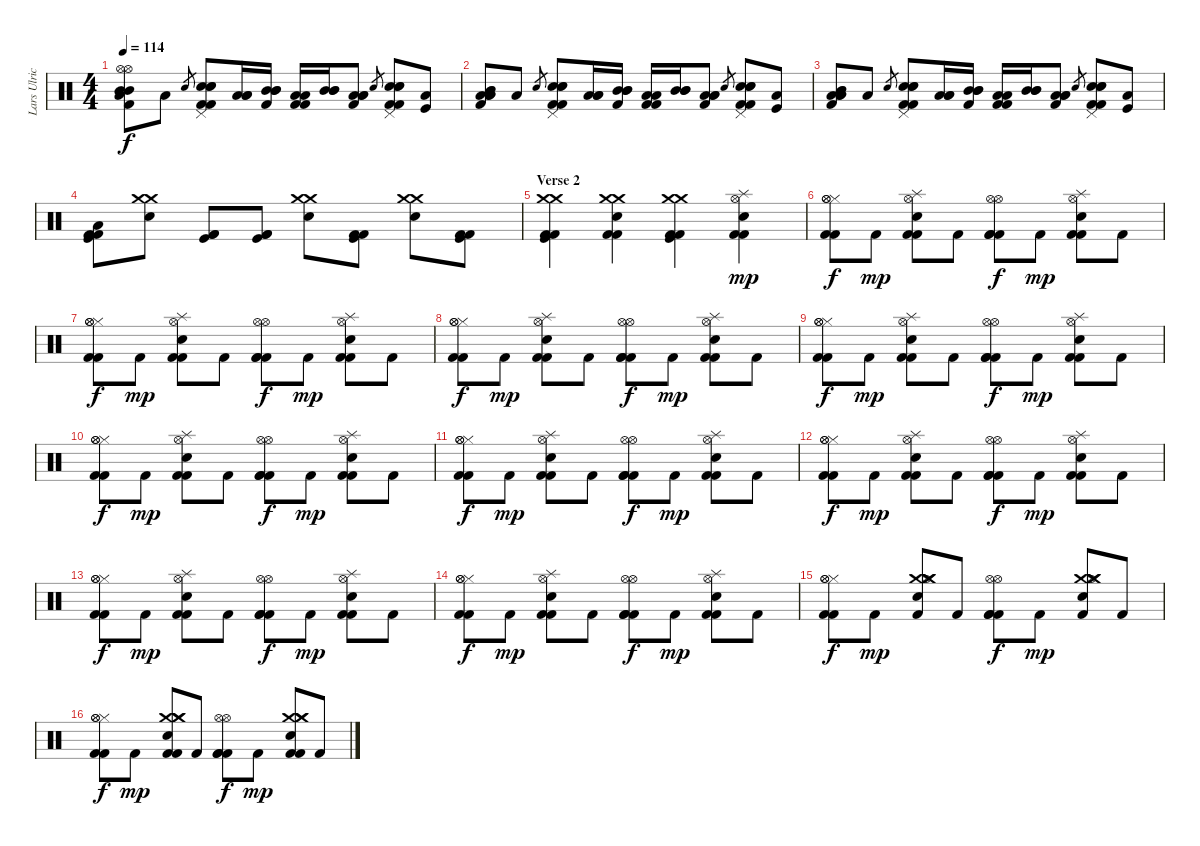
\track ("Lars Ulrich" "Lars Ulric") {instrument percussion}
\staff {score}
\articulation defaults
\ts (4 4)
\tempo 114
\clef neutral
\ks c
("Mid Tom (hit)" "Low Floor Tom (hit)" "Kick (hit) 2" "Mid Tom (hit)" "Hi-Hat (open)" "Hi-Hat (open)").8{dy f} "Low Floor Tom (hit)".8 "Electric Snare (hit)".8{gr} ("Pedal Hi-Hat (hit)" "Electric Snare (hit)" "Electric Snare (hit)" "Electric Snare (hit)" "Kick (hit) 2" "Kick (hit) 2").8 ("Low Floor Tom (hit)" "Low Floor Tom (hit)" "Low Floor Tom (hit)").16 ("Kick (hit) 2" "Mid Tom (hit)" "Mid Tom (hit)" "Mid Tom (hit)").16 ("Kick (hit) 2" "Low Floor Tom (hit)" "Low Floor Tom (hit)" "Kick (hit) 2").16 ("Mid Tom (hit)" "Mid Tom (hit)" "Mid Tom (hit)").16 ("Kick (hit) 2" "Low Floor Tom (hit)" "Low Floor Tom (hit)" "Low Floor Tom (hit)").8 "Electric Snare (hit)".8{gr} ("Pedal Hi-Hat (hit)" "Electric Snare (hit)" "Electric Snare (hit)" "Electric Snare (hit)" "Kick (hit) 2" "Kick (hit) 2").8 ("Kick (hit)" "Low Floor Tom (hit)").8 |
("Mid Tom (hit)" "Low Floor Tom (hit)" "Kick (hit) 2" "Mid Tom (hit)" "Low Floor Tom (hit)" "Low Floor Tom (hit)").8 "Low Floor Tom (hit)".8 "Electric Snare (hit)".8{gr} ("Pedal Hi-Hat (hit)" "Electric Snare (hit)" "Electric Snare (hit)" "Electric Snare (hit)" "Kick (hit) 2" "Kick (hit) 2").8 ("Low Floor Tom (hit)" "Low Floor Tom (hit)" "Low Floor Tom (hit)").16 ("Kick (hit) 2" "Mid Tom (hit)" "Mid Tom (hit)" "Mid Tom (hit)").16 ("Kick (hit) 2" "Low Floor Tom (hit)" "Low Floor Tom (hit)" "Kick (hit) 2").16 ("Mid Tom (hit)" "Mid Tom (hit)" "Mid Tom (hit)").16 ("Kick (hit) 2" "Low Floor Tom (hit)" "Low Floor Tom (hit)" "Low Floor Tom (hit)").8 "Electric Snare (hit)".8{gr} ("Pedal Hi-Hat (hit)" "Electric Snare (hit)" "Electric Snare (hit)" "Electric Snare (hit)" "Kick (hit) 2" "Kick (hit) 2").8 ("Kick (hit)" "Low Floor Tom (hit)").8 |
("Mid Tom (hit)" "Low Floor Tom (hit)" "Kick (hit) 2" "Mid Tom (hit)" "Low Floor Tom (hit)" "Low Floor Tom (hit)").8 "Low Floor Tom (hit)".8 "Electric Snare (hit)".8{gr} ("Pedal Hi-Hat (hit)" "Electric Snare (hit)" "Electric Snare (hit)" "Electric Snare (hit)" "Kick (hit) 2" "Kick (hit) 2").8 ("Low Floor Tom (hit)" "Low Floor Tom (hit)" "Low Floor Tom (hit)").16 ("Kick (hit) 2" "Mid Tom (hit)" "Mid Tom (hit)" "Mid Tom (hit)").16 ("Kick (hit) 2" "Low Floor Tom (hit)" "Low Floor Tom (hit)" "Kick (hit) 2").16 ("Mid Tom (hit)" "Mid Tom (hit)" "Mid Tom (hit)").16 ("Kick (hit) 2" "Low Floor Tom (hit)" "Low Floor Tom (hit)" "Low Floor Tom (hit)").8 "Electric Snare (hit)".8{gr} ("Pedal Hi-Hat (hit)" "Electric Snare (hit)" "Electric Snare (hit)" "Electric Snare (hit)" "Kick (hit) 2" "Kick (hit) 2").8 ("Kick (hit)" "Low Floor Tom (hit)").8 |
("Kick (hit)" "Low Floor Tom (hit)" "Kick (hit) 2" "Kick (hit) 2").8 ("Electric Snare (hit)" "Crash medium (hit)" "Crash medium (hit)").8 ("Kick (hit)" "Kick (hit) 2" "Kick (hit) 2").8 ("Kick (hit)" "Kick (hit) 2" "Kick (hit) 2").8 ("Electric Snare (hit)" "Crash medium (hit)" "Crash medium (hit)").8 ("Kick (hit)" "Kick (hit) 2" "Kick (hit) 2").8 ("Electric Snare (hit)" "Crash medium (hit)" "Crash medium (hit)").8 ("Kick (hit)" "Kick (hit) 2" "Kick (hit) 2").8 |
\section ("" "Verse 2")
("Kick (hit)" "Crash medium (hit)" "Kick (hit) 2" "Kick (hit) 2" "Crash medium (hit)").4 ("Electric Snare (hit)" "Crash medium (hit)" "Kick (hit) 2" "Kick (hit) 2" "Crash medium (hit)").4 ("Kick (hit)" "Crash medium (hit)" "Kick (hit) 2" "Kick (hit) 2" "Crash medium (hit)").4 ("Snare (hit) 2" "Splash (hit)" "Hi-Hat (open)" "Kick (hit) 2" "Kick (hit) 2").4{dy mp} |
("Hi-Hat (closed)" "Hi-Hat (open)" "Hi-Hat (open)" "Kick (hit) 2" "Kick (hit) 2").8{dy f} "Kick (hit) 2".8{dy mp} ("Snare (hit) 2" "Splash (hit)" "Hi-Hat (open)" "Kick (hit) 2" "Kick (hit) 2").8 "Kick (hit) 2".8 ("Kick (hit) 2" "Hi-Hat (open)" "Hi-Hat (open)" "Kick (hit) 2" "Kick (hit) 2").8{dy f} "Kick (hit) 2".8{dy mp} ("Snare (hit) 2" "Splash (hit)" "Hi-Hat (open)" "Kick (hit) 2" "Kick (hit) 2").8 "Kick (hit) 2".8 |
("Hi-Hat (closed)" "Hi-Hat (open)" "Hi-Hat (open)" "Kick (hit) 2" "Kick (hit) 2").8{dy f} "Kick (hit) 2".8{dy mp} ("Snare (hit) 2" "Splash (hit)" "Hi-Hat (open)" "Kick (hit) 2" "Kick (hit) 2").8 "Kick (hit) 2".8 ("Kick (hit) 2" "Hi-Hat (open)" "Hi-Hat (open)" "Kick (hit) 2" "Kick (hit) 2").8{dy f} "Kick (hit) 2".8{dy mp} ("Snare (hit) 2" "Splash (hit)" "Hi-Hat (open)" "Kick (hit) 2" "Kick (hit) 2").8 "Kick (hit) 2".8 |
("Hi-Hat (closed)" "Hi-Hat (open)" "Hi-Hat (open)" "Kick (hit) 2" "Kick (hit) 2").8{dy f} "Kick (hit) 2".8{dy mp} ("Snare (hit) 2" "Splash (hit)" "Hi-Hat (open)" "Kick (hit) 2" "Kick (hit) 2").8 "Kick (hit) 2".8 ("Kick (hit) 2" "Hi-Hat (open)" "Hi-Hat (open)" "Kick (hit) 2" "Kick (hit) 2").8{dy f} "Kick (hit) 2".8{dy mp} ("Snare (hit) 2" "Splash (hit)" "Hi-Hat (open)" "Kick (hit) 2" "Kick (hit) 2").8 "Kick (hit) 2".8 |
("Hi-Hat (closed)" "Hi-Hat (open)" "Hi-Hat (open)" "Kick (hit) 2" "Kick (hit) 2").8{dy f} "Kick (hit) 2".8{dy mp} ("Snare (hit) 2" "Splash (hit)" "Hi-Hat (open)" "Kick (hit) 2" "Kick (hit) 2").8 "Kick (hit) 2".8 ("Kick (hit) 2" "Hi-Hat (open)" "Hi-Hat (open)" "Kick (hit) 2" "Kick (hit) 2").8{dy f} "Kick (hit) 2".8{dy mp} ("Snare (hit) 2" "Splash (hit)" "Hi-Hat (open)" "Kick (hit) 2" "Kick (hit) 2").8 "Kick (hit) 2".8 |
("Hi-Hat (closed)" "Hi-Hat (open)" "Hi-Hat (open)" "Kick (hit) 2" "Kick (hit) 2").8{dy f} "Kick (hit) 2".8{dy mp} ("Snare (hit) 2" "Splash (hit)" "Hi-Hat (open)" "Kick (hit) 2" "Kick (hit) 2").8 "Kick (hit) 2".8 ("Kick (hit) 2" "Hi-Hat (open)" "Hi-Hat (open)" "Kick (hit) 2" "Kick (hit) 2").8{dy f} "Kick (hit) 2".8{dy mp} ("Snare (hit) 2" "Splash (hit)" "Hi-Hat (open)" "Kick (hit) 2" "Kick (hit) 2").8 "Kick (hit) 2".8 |
("Hi-Hat (closed)" "Hi-Hat (open)" "Hi-Hat (open)" "Kick (hit) 2" "Kick (hit) 2").8{dy f} "Kick (hit) 2".8{dy mp} ("Snare (hit) 2" "Splash (hit)" "Hi-Hat (open)" "Kick (hit) 2" "Kick (hit) 2").8 "Kick (hit) 2".8 ("Kick (hit) 2" "Hi-Hat (open)" "Hi-Hat (open)" "Kick (hit) 2" "Kick (hit) 2").8{dy f} "Kick (hit) 2".8{dy mp} ("Snare (hit) 2" "Splash (hit)" "Hi-Hat (open)" "Kick (hit) 2" "Kick (hit) 2").8 "Kick (hit) 2".8 |
("Hi-Hat (closed)" "Hi-Hat (open)" "Hi-Hat (open)" "Kick (hit) 2" "Kick (hit) 2").8{dy f} "Kick (hit) 2".8{dy mp} ("Snare (hit) 2" "Splash (hit)" "Hi-Hat (open)" "Kick (hit) 2" "Kick (hit) 2").8 "Kick (hit) 2".8 ("Kick (hit) 2" "Hi-Hat (open)" "Hi-Hat (open)" "Kick (hit) 2" "Kick (hit) 2").8{dy f} "Kick (hit) 2".8{dy mp} ("Snare (hit) 2" "Splash (hit)" "Hi-Hat (open)" "Kick (hit) 2" "Kick (hit) 2").8 "Kick (hit) 2".8 |
("Hi-Hat (closed)" "Hi-Hat (open)" "Hi-Hat (open)" "Kick (hit) 2" "Kick (hit) 2").8{dy f} "Kick (hit) 2".8{dy mp} ("Snare (hit) 2" "Splash (hit)" "Hi-Hat (open)" "Kick (hit) 2" "Kick (hit) 2").8 "Kick (hit) 2".8 ("Kick (hit) 2" "Hi-Hat (open)" "Hi-Hat (open)" "Kick (hit) 2" "Kick (hit) 2").8{dy f} "Kick (hit) 2".8{dy mp} ("Snare (hit) 2" "Splash (hit)" "Hi-Hat (open)" "Kick (hit) 2" "Kick (hit) 2").8 "Kick (hit) 2".8 |
("Hi-Hat (closed)" "Hi-Hat (open)" "Hi-Hat (open)" "Kick (hit) 2" "Kick (hit) 2").8{dy f} "Kick (hit) 2".8{dy mp} ("Snare (hit) 2" "Splash (hit)" "Hi-Hat (open)" "Kick (hit) 2" "Kick (hit) 2").8 "Kick (hit) 2".8 ("Kick (hit) 2" "Hi-Hat (open)" "Hi-Hat (open)" "Kick (hit) 2" "Kick (hit) 2").8{dy f} "Kick (hit) 2".8{dy mp} ("Snare (hit) 2" "Splash (hit)" "Hi-Hat (open)" "Kick (hit) 2" "Kick (hit) 2").8 "Kick (hit) 2".8 |
("Hi-Hat (closed)" "Hi-Hat (open)" "Hi-Hat (open)" "Kick (hit) 2" "Kick (hit) 2").8{dy f} "Kick (hit) 2".8{dy mp} ("Snare (hit) 2" "Crash medium (hit)" "Hi-Hat (open)" "Kick (hit) 2" "Crash medium (hit)" "Crash medium (hit)").8 "Kick (hit) 2".8 ("Kick (hit) 2" "Hi-Hat (open)" "Hi-Hat (open)" "Kick (hit) 2" "Kick (hit) 2").8{dy f} "Kick (hit) 2".8{dy mp} ("Snare (hit) 2" "Crash medium (hit)" "Hi-Hat (open)" "Kick (hit) 2" "Crash medium (hit)" "Crash medium (hit)").8 "Kick (hit) 2".8 |
("Hi-Hat (closed)" "Hi-Hat (open)" "Hi-Hat (open)" "Kick (hit) 2" "Kick (hit) 2").8{dy f} "Kick (hit) 2".8{dy mp} ("Snare (hit) 2" "Crash medium (hit)" "Crash medium (hit)" "Kick (hit) 2" "Kick (hit) 2" "Crash medium (hit)").8 "Kick (hit) 2".8 ("Kick (hit) 2" "Hi-Hat (open)" "Hi-Hat (open)" "Kick (hit) 2" "Kick (hit) 2").8{dy f} "Kick (hit) 2".8{dy mp} ("Snare (hit) 2" "Crash medium (hit)" "Crash medium (hit)" "Kick (hit) 2" "Kick (hit) 2" "Crash medium (hit)").8 "Kick (hit) 2".8
